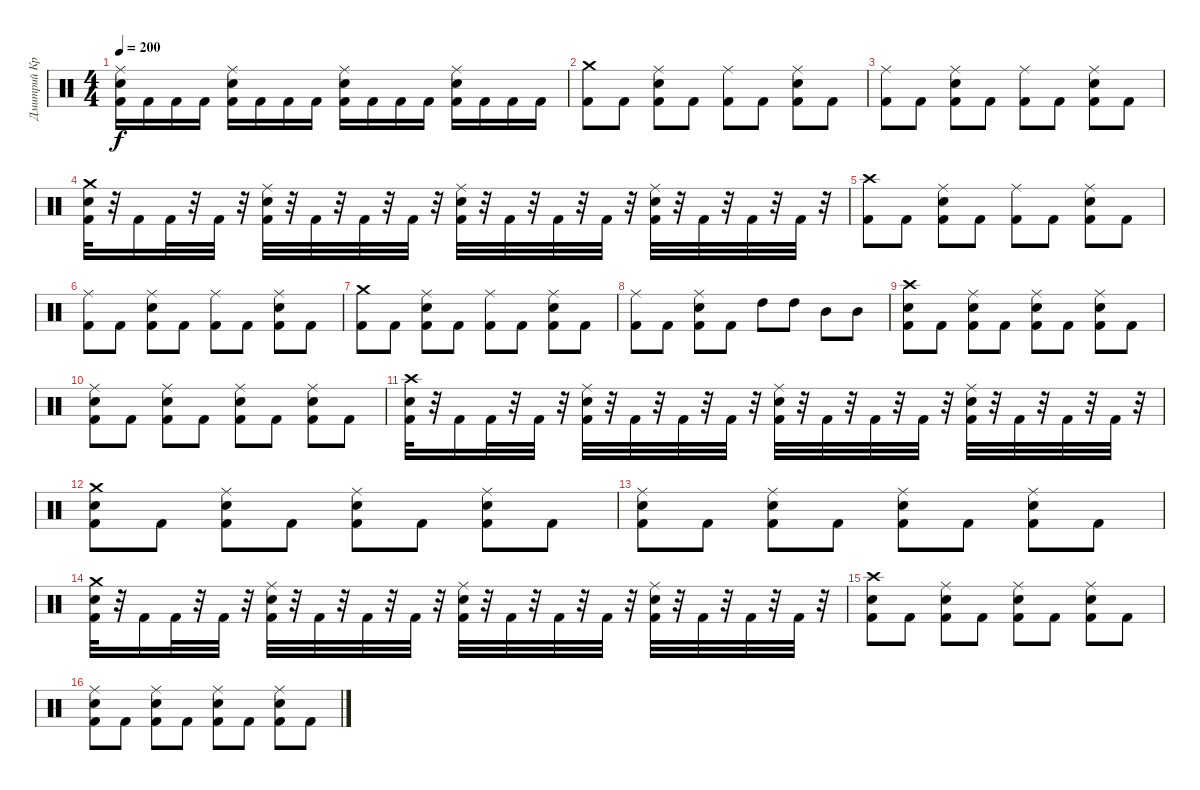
\track ("Дмитрий Кривенков" "Дмитрий Кр") {instrument percussion}
\staff {score}
\articulation defaults
\ts (4 4)
\tempo 200
\clef neutral
\ks c
("Ride (middle)" "Kick (hit) 2" "Electric Snare (hit)").16{dy f} "Kick (hit) 2".16 "Kick (hit) 2".16 "Kick (hit) 2".16 ("Ride (middle)" "Kick (hit) 2" "Electric Snare (hit)").16 "Kick (hit) 2".16 "Kick (hit) 2".16 "Kick (hit) 2".16 ("Ride (middle)" "Kick (hit) 2" "Electric Snare (hit)").16 "Kick (hit) 2".16 "Kick (hit) 2".16 "Kick (hit) 2".16 ("Ride (middle)" "Kick (hit) 2" "Electric Snare (hit)").16 "Kick (hit) 2".16 "Kick (hit) 2".16 "Kick (hit) 2".16 |
("Crash medium (hit)" "Kick (hit) 2").8 "Kick (hit) 2".8 ("Ride (middle)" "Electric Snare (hit)" "Kick (hit) 2").8 "Kick (hit) 2".8 ("Ride (middle)" "Kick (hit) 2").8 "Kick (hit) 2".8 ("Ride (middle)" "Electric Snare (hit)" "Kick (hit) 2").8 "Kick (hit) 2".8 |
("Ride (middle)" "Kick (hit) 2").8 "Kick (hit) 2".8 ("Ride (middle)" "Electric Snare (hit)" "Kick (hit) 2").8 "Kick (hit) 2".8 ("Ride (middle)" "Kick (hit) 2").8 "Kick (hit) 2".8 ("Ride (middle)" "Electric Snare (hit)" "Kick (hit) 2").8 "Kick (hit) 2".8 |
("Crash medium (hit)" "Kick (hit) 2" "Electric Snare (hit)").32 r.32 "Kick (hit) 2".16 "Kick (hit) 2".32 r.32 "Kick (hit) 2".32 r.32 ("Ride (middle)" "Kick (hit) 2" "Electric Snare (hit)").32 r.32 "Kick (hit) 2".32 r.32 "Kick (hit) 2".32 r.32 "Kick (hit) 2".32 r.32 ("Ride (middle)" "Kick (hit) 2" "Electric Snare (hit)").32 r.32 "Kick (hit) 2".32 r.32 "Kick (hit) 2".32 r.32 "Kick (hit) 2".32 r.32 ("Ride (middle)" "Kick (hit) 2" "Electric Snare (hit)").32 r.32 "Kick (hit) 2".32 r.32 "Kick (hit) 2".32 r.32 "Kick (hit) 2".32 r.32 |
("Crash high (hit)" "Kick (hit) 2").8 "Kick (hit) 2".8 ("Ride (middle)" "Electric Snare (hit)" "Kick (hit) 2").8 "Kick (hit) 2".8 ("Ride (middle)" "Kick (hit) 2").8 "Kick (hit) 2".8 ("Ride (middle)" "Electric Snare (hit)" "Kick (hit) 2").8 "Kick (hit) 2".8 |
("Ride (middle)" "Kick (hit) 2").8 "Kick (hit) 2".8 ("Ride (middle)" "Electric Snare (hit)" "Kick (hit) 2").8 "Kick (hit) 2".8 ("Ride (middle)" "Kick (hit) 2").8 "Kick (hit) 2".8 ("Ride (middle)" "Electric Snare (hit)" "Kick (hit) 2").8 "Kick (hit) 2".8 |
("Crash medium (hit)" "Kick (hit) 2").8 "Kick (hit) 2".8 ("Ride (middle)" "Electric Snare (hit)" "Kick (hit) 2").8 "Kick (hit) 2".8 ("Ride (middle)" "Kick (hit) 2").8 "Kick (hit) 2".8 ("Ride (middle)" "Electric Snare (hit)" "Kick (hit) 2").8 "Kick (hit) 2".8 |
("Ride (middle)" "Kick (hit) 2").8 "Kick (hit) 2".8 ("Ride (middle)" "Electric Snare (hit)" "Kick (hit) 2").8 "Kick (hit) 2".8 "High Tom (hit)".8 "High Tom (hit)".8 "Mid Tom (hit)".8 "Mid Tom (hit)".8 |
("Crash high (hit)" "Kick (hit) 2" "Electric Snare (hit)").8 "Kick (hit) 2".8 ("Ride (middle)" "Electric Snare (hit)" "Kick (hit) 2").8 "Kick (hit) 2".8 ("Ride (middle)" "Electric Snare (hit)" "Kick (hit) 2").8 "Kick (hit) 2".8 ("Ride (middle)" "Electric Snare (hit)" "Kick (hit) 2").8 "Kick (hit) 2".8 |
("Ride (middle)" "Kick (hit) 2" "Electric Snare (hit)").8 "Kick (hit) 2".8 ("Ride (middle)" "Electric Snare (hit)" "Kick (hit) 2").8 "Kick (hit) 2".8 ("Ride (middle)" "Electric Snare (hit)" "Kick (hit) 2").8 "Kick (hit) 2".8 ("Ride (middle)" "Electric Snare (hit)" "Kick (hit) 2").8 "Kick (hit) 2".8 |
("Kick (hit) 2" "Crash high (hit)" "Electric Snare (hit)").32 r.32 "Kick (hit) 2".16 "Kick (hit) 2".32 r.32 "Kick (hit) 2".32 r.32 ("Kick (hit) 2" "Ride (middle)" "Electric Snare (hit)").32 r.32 "Kick (hit) 2".32 r.32 "Kick (hit) 2".32 r.32 "Kick (hit) 2".32 r.32 ("Kick (hit) 2" "Ride (middle)" "Electric Snare (hit)").32 r.32 "Kick (hit) 2".32 r.32 "Kick (hit) 2".32 r.32 "Kick (hit) 2".32 r.32 ("Kick (hit) 2" "Ride (middle)" "Electric Snare (hit)").32 r.32 "Kick (hit) 2".32 r.32 "Kick (hit) 2".32 r.32 "Kick (hit) 2".32 r.32 |
("Crash medium (hit)" "Kick (hit) 2" "Electric Snare (hit)").8 "Kick (hit) 2".8 ("Ride (middle)" "Electric Snare (hit)" "Kick (hit) 2").8 "Kick (hit) 2".8 ("Ride (middle)" "Electric Snare (hit)" "Kick (hit) 2").8 "Kick (hit) 2".8 ("Ride (middle)" "Electric Snare (hit)" "Kick (hit) 2").8 "Kick (hit) 2".8 |
("Ride (middle)" "Kick (hit) 2" "Electric Snare (hit)").8 "Kick (hit) 2".8 ("Ride (middle)" "Electric Snare (hit)" "Kick (hit) 2").8 "Kick (hit) 2".8 ("Ride (middle)" "Electric Snare (hit)" "Kick (hit) 2").8 "Kick (hit) 2".8 ("Ride (middle)" "Electric Snare (hit)" "Kick (hit) 2").8 "Kick (hit) 2".8 |
("Kick (hit) 2" "Electric Snare (hit)" "Crash medium (hit)").32 r.32 "Kick (hit) 2".16 "Kick (hit) 2".32 r.32 "Kick (hit) 2".32 r.32 ("Kick (hit) 2" "Electric Snare (hit)" "Ride (middle)").32 r.32 "Kick (hit) 2".32 r.32 "Kick (hit) 2".32 r.32 "Kick (hit) 2".32 r.32 ("Kick (hit) 2" "Electric Snare (hit)" "Ride (middle)").32 r.32 "Kick (hit) 2".32 r.32 "Kick (hit) 2".32 r.32 "Kick (hit) 2".32 r.32 ("Kick (hit) 2" "Electric Snare (hit)" "Ride (middle)").32 r.32 "Kick (hit) 2".32 r.32 "Kick (hit) 2".32 r.32 "Kick (hit) 2".32 r.32 |
("Electric Snare (hit)" "Kick (hit) 2" "Crash high (hit)").8 "Kick (hit) 2".8 ("Ride (middle)" "Electric Snare (hit)" "Kick (hit) 2").8 "Kick (hit) 2".8 ("Kick (hit) 2" "Ride (middle)" "Electric Snare (hit)").8 "Kick (hit) 2".8 ("Kick (hit) 2" "Ride (middle)" "Electric Snare (hit)").8 "Kick (hit) 2".8 |
("Kick (hit) 2" "Electric Snare (hit)" "Ride (middle)").8 "Kick (hit) 2".8 ("Electric Snare (hit)" "Ride (middle)" "Kick (hit) 2").8 "Kick (hit) 2".8 ("Electric Snare (hit)" "Ride (middle)" "Kick (hit) 2").8 "Kick (hit) 2".8 ("Ride (middle)" "Kick (hit) 2" "Electric Snare (hit)").8 "Kick (hit) 2".8
